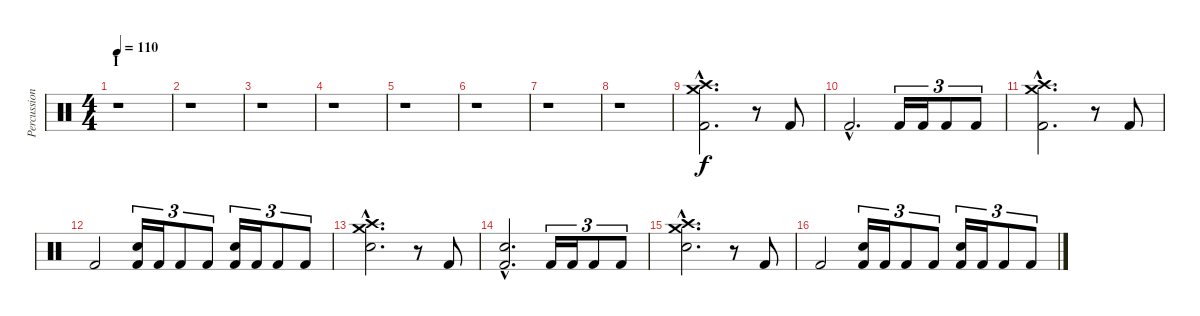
\track ("Percussion" "Percussion") {instrument percussion}
\staff {score}
\articulation defaults
\ts (4 4)
\section ("" "I")
\tempo 110
\clef neutral
\ks c
r.1{dy f} |
r.1 |
r.1 |
r.1 |
r.1 |
r.1 |
r.1 |
r.1 |
("Crash high (hit)"{hac} "Crash medium (hit)"{hac} "Kick (hit) 2"{hac}).2{d} r.8 "Kick (hit) 2".8 |
"Kick (hit) 2"{hac}.2{d} "Kick (hit) 2".16{tu (3 2)} "Kick (hit) 2".16{tu (3 2)} "Kick (hit) 2".8{tu (3 2)} "Kick (hit) 2".8{tu (3 2)} |
("Crash high (hit)"{hac} "Crash medium (hit)"{hac} "Kick (hit) 2"{hac}).2{d} r.8 "Kick (hit) 2".8 |
"Kick (hit) 2".2 ("Snare (hit) 2" "Kick (hit) 2").16{tu (3 2)} "Kick (hit) 2".16{tu (3 2)} "Kick (hit) 2".8{tu (3 2)} "Kick (hit) 2".8{tu (3 2)} ("Snare (hit) 2" "Kick (hit) 2").16{tu (3 2)} "Kick (hit) 2".16{tu (3 2)} "Kick (hit) 2".8{tu (3 2)} "Kick (hit) 2".8{tu (3 2)} |
("Crash high (hit)"{hac} "Crash medium (hit)"{hac} "Snare (hit) 2"{hac}).2{d} r.8 "Kick (hit) 2".8 |
("Snare (hit) 2"{hac} "Kick (hit) 2"{hac}).2{d} "Kick (hit) 2".16{tu (3 2)} "Kick (hit) 2".16{tu (3 2)} "Kick (hit) 2".8{tu (3 2)} "Kick (hit) 2".8{tu (3 2)} |
("Crash high (hit)"{hac} "Crash medium (hit)"{hac} "Snare (hit) 2"{hac}).2{d} r.8 "Kick (hit) 2".8 |
"Kick (hit) 2".2 ("Snare (hit) 2" "Kick (hit) 2").16{tu (3 2)} "Kick (hit) 2".16{tu (3 2)} "Kick (hit) 2".8{tu (3 2)} "Kick (hit) 2".8{tu (3 2)} ("Snare (hit) 2" "Kick (hit) 2").16{tu (3 2)} "Kick (hit) 2".16{tu (3 2)} "Kick (hit) 2".8{tu (3 2)} "Kick (hit) 2".8{tu (3 2)}
